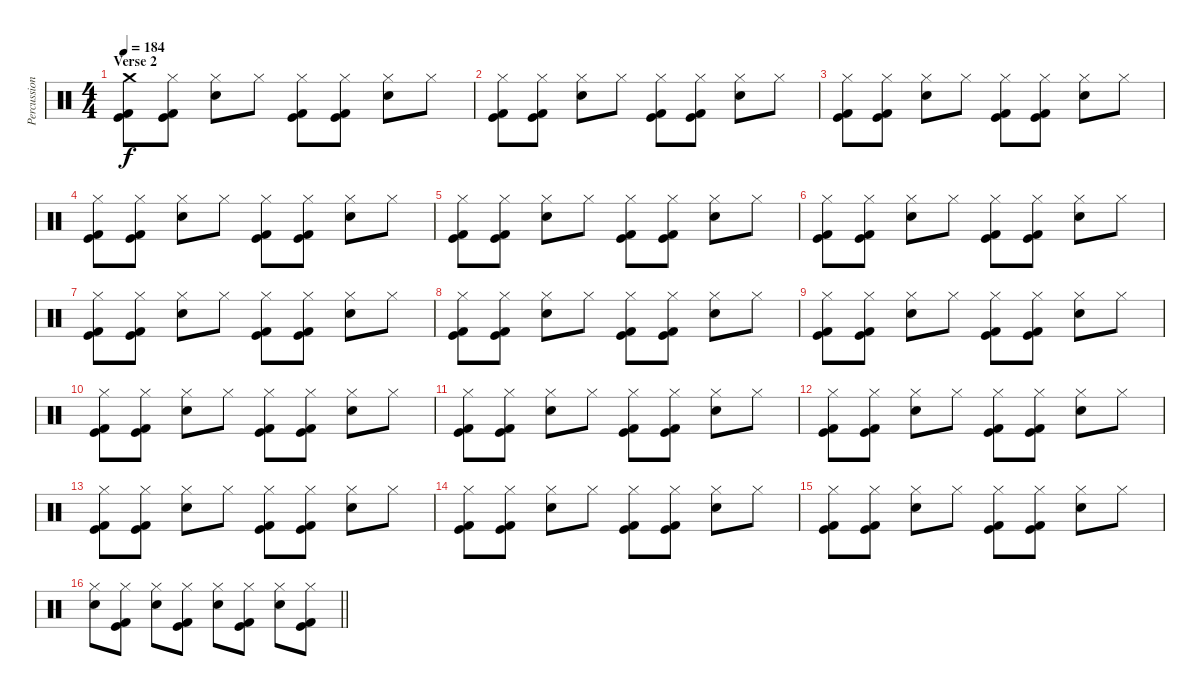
\track ("Percussion" "Percussion") {instrument percussion}
\staff {score}
\articulation defaults
\ts (4 4)
\section ("" "Verse 2")
\tempo 184
\clef neutral
\ks c
("Crash medium (hit)" "Kick (hit)" "Kick (hit) 2").8{dy f} ("Hi-Hat (closed)" "Kick (hit)" "Kick (hit) 2").8 ("Hi-Hat (closed)" "Electric Snare (hit)").8 "Hi-Hat (closed)".8 ("Hi-Hat (closed)" "Kick (hit)" "Kick (hit) 2").8 ("Hi-Hat (closed)" "Kick (hit)" "Kick (hit) 2").8 ("Hi-Hat (closed)" "Electric Snare (hit)").8 "Hi-Hat (closed)".8 |
("Hi-Hat (closed)" "Kick (hit)" "Kick (hit) 2").8 ("Hi-Hat (closed)" "Kick (hit)" "Kick (hit) 2").8 ("Hi-Hat (closed)" "Electric Snare (hit)").8 "Hi-Hat (closed)".8 ("Hi-Hat (closed)" "Kick (hit)" "Kick (hit) 2").8 ("Hi-Hat (closed)" "Kick (hit)" "Kick (hit) 2").8 ("Hi-Hat (closed)" "Electric Snare (hit)").8 "Hi-Hat (closed)".8 |
("Hi-Hat (closed)" "Kick (hit)" "Kick (hit) 2").8 ("Hi-Hat (closed)" "Kick (hit)" "Kick (hit) 2").8 ("Hi-Hat (closed)" "Electric Snare (hit)").8 "Hi-Hat (closed)".8 ("Hi-Hat (closed)" "Kick (hit)" "Kick (hit) 2").8 ("Hi-Hat (closed)" "Kick (hit)" "Kick (hit) 2").8 ("Hi-Hat (closed)" "Electric Snare (hit)").8 "Hi-Hat (closed)".8 |
("Hi-Hat (closed)" "Kick (hit)" "Kick (hit) 2").8 ("Hi-Hat (closed)" "Kick (hit)" "Kick (hit) 2").8 ("Hi-Hat (closed)" "Electric Snare (hit)").8 "Hi-Hat (closed)".8 ("Hi-Hat (closed)" "Kick (hit)" "Kick (hit) 2").8 ("Hi-Hat (closed)" "Kick (hit)" "Kick (hit) 2").8 ("Hi-Hat (closed)" "Electric Snare (hit)").8 "Hi-Hat (closed)".8 |
("Hi-Hat (closed)" "Kick (hit)" "Kick (hit) 2").8 ("Hi-Hat (closed)" "Kick (hit)" "Kick (hit) 2").8 ("Hi-Hat (closed)" "Electric Snare (hit)").8 "Hi-Hat (closed)".8 ("Hi-Hat (closed)" "Kick (hit)" "Kick (hit) 2").8 ("Hi-Hat (closed)" "Kick (hit)" "Kick (hit) 2").8 ("Hi-Hat (closed)" "Electric Snare (hit)").8 "Hi-Hat (closed)".8 |
("Hi-Hat (closed)" "Kick (hit)" "Kick (hit) 2").8 ("Hi-Hat (closed)" "Kick (hit)" "Kick (hit) 2").8 ("Hi-Hat (closed)" "Electric Snare (hit)").8 "Hi-Hat (closed)".8 ("Hi-Hat (closed)" "Kick (hit)" "Kick (hit) 2").8 ("Hi-Hat (closed)" "Kick (hit)" "Kick (hit) 2").8 ("Hi-Hat (closed)" "Electric Snare (hit)").8 "Hi-Hat (closed)".8 |
("Hi-Hat (closed)" "Kick (hit)" "Kick (hit) 2").8 ("Hi-Hat (closed)" "Kick (hit)" "Kick (hit) 2").8 ("Hi-Hat (closed)" "Electric Snare (hit)").8 "Hi-Hat (closed)".8 ("Hi-Hat (closed)" "Kick (hit)" "Kick (hit) 2").8 ("Hi-Hat (closed)" "Kick (hit)" "Kick (hit) 2").8 ("Hi-Hat (closed)" "Electric Snare (hit)").8 "Hi-Hat (closed)".8 |
("Hi-Hat (closed)" "Kick (hit)" "Kick (hit) 2").8 ("Hi-Hat (closed)" "Kick (hit)" "Kick (hit) 2").8 ("Hi-Hat (closed)" "Electric Snare (hit)").8 "Hi-Hat (closed)".8 ("Hi-Hat (closed)" "Kick (hit)" "Kick (hit) 2").8 ("Hi-Hat (closed)" "Kick (hit)" "Kick (hit) 2").8 ("Hi-Hat (closed)" "Electric Snare (hit)").8 "Hi-Hat (closed)".8 |
("Hi-Hat (closed)" "Kick (hit)" "Kick (hit) 2").8 ("Hi-Hat (closed)" "Kick (hit)" "Kick (hit) 2").8 ("Hi-Hat (closed)" "Electric Snare (hit)").8 "Hi-Hat (closed)".8 ("Hi-Hat (closed)" "Kick (hit)" "Kick (hit) 2").8 ("Hi-Hat (closed)" "Kick (hit)" "Kick (hit) 2").8 ("Hi-Hat (closed)" "Electric Snare (hit)").8 "Hi-Hat (closed)".8 |
("Hi-Hat (closed)" "Kick (hit)" "Kick (hit) 2").8 ("Hi-Hat (closed)" "Kick (hit)" "Kick (hit) 2").8 ("Hi-Hat (closed)" "Electric Snare (hit)").8 "Hi-Hat (closed)".8 ("Hi-Hat (closed)" "Kick (hit)" "Kick (hit) 2").8 ("Hi-Hat (closed)" "Kick (hit)" "Kick (hit) 2").8 ("Hi-Hat (closed)" "Electric Snare (hit)").8 "Hi-Hat (closed)".8 |
("Hi-Hat (closed)" "Kick (hit)" "Kick (hit) 2").8 ("Hi-Hat (closed)" "Kick (hit)" "Kick (hit) 2").8 ("Hi-Hat (closed)" "Electric Snare (hit)").8 "Hi-Hat (closed)".8 ("Hi-Hat (closed)" "Kick (hit)" "Kick (hit) 2").8 ("Hi-Hat (closed)" "Kick (hit)" "Kick (hit) 2").8 ("Hi-Hat (closed)" "Electric Snare (hit)").8 "Hi-Hat (closed)".8 |
("Hi-Hat (closed)" "Kick (hit)" "Kick (hit) 2").8 ("Hi-Hat (closed)" "Kick (hit)" "Kick (hit) 2").8 ("Hi-Hat (closed)" "Electric Snare (hit)").8 "Hi-Hat (closed)".8 ("Hi-Hat (closed)" "Kick (hit)" "Kick (hit) 2").8 ("Hi-Hat (closed)" "Kick (hit)" "Kick (hit) 2").8 ("Hi-Hat (closed)" "Electric Snare (hit)").8 "Hi-Hat (closed)".8 |
("Hi-Hat (closed)" "Kick (hit)" "Kick (hit) 2").8 ("Hi-Hat (closed)" "Kick (hit)" "Kick (hit) 2").8 ("Hi-Hat (closed)" "Electric Snare (hit)").8 "Hi-Hat (closed)".8 ("Hi-Hat (closed)" "Kick (hit)" "Kick (hit) 2").8 ("Hi-Hat (closed)" "Kick (hit)" "Kick (hit) 2").8 ("Hi-Hat (closed)" "Electric Snare (hit)").8 "Hi-Hat (closed)".8 |
("Hi-Hat (closed)" "Kick (hit)" "Kick (hit) 2").8 ("Hi-Hat (closed)" "Kick (hit)" "Kick (hit) 2").8 ("Hi-Hat (closed)" "Electric Snare (hit)").8 "Hi-Hat (closed)".8 ("Hi-Hat (closed)" "Kick (hit)" "Kick (hit) 2").8 ("Hi-Hat (closed)" "Kick (hit)" "Kick (hit) 2").8 ("Hi-Hat (closed)" "Electric Snare (hit)").8 "Hi-Hat (closed)".8 |
("Hi-Hat (closed)" "Kick (hit)" "Kick (hit) 2").8 ("Hi-Hat (closed)" "Kick (hit)" "Kick (hit) 2").8 ("Hi-Hat (closed)" "Electric Snare (hit)").8 "Hi-Hat (closed)".8 ("Hi-Hat (closed)" "Kick (hit)" "Kick (hit) 2").8 ("Hi-Hat (closed)" "Kick (hit)" "Kick (hit) 2").8 ("Hi-Hat (closed)" "Electric Snare (hit)").8 "Hi-Hat (closed)".8 |
\barLineRight lightlight
("Hi-Hat (closed)" "Electric Snare (hit)").8 ("Hi-Hat (closed)" "Kick (hit)" "Kick (hit) 2").8 ("Hi-Hat (closed)" "Electric Snare (hit)").8 ("Hi-Hat (closed)" "Kick (hit)" "Kick (hit) 2").8 ("Hi-Hat (closed)" "Electric Snare (hit)").8 ("Hi-Hat (closed)" "Kick (hit)" "Kick (hit) 2").8 ("Hi-Hat (closed)" "Electric Snare (hit)").8 ("Hi-Hat (closed)" "Kick (hit)" "Kick (hit) 2").8
